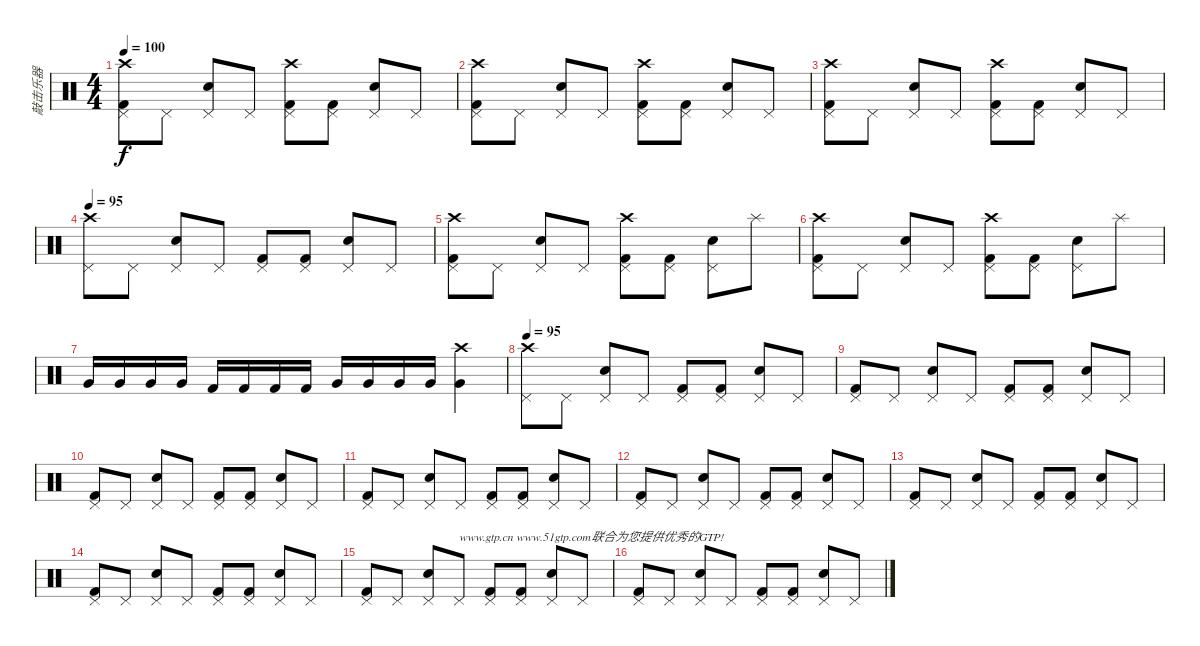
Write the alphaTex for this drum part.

\track ("敲击乐器" "敲击乐器") {instrument percussion}
\staff {score}
\articulation defaults
\ts (4 4)
\tempo 100
\clef neutral
\ks c
("Kick (hit) 2" "Pedal Hi-Hat (hit)" "Crash high (hit)").8{dy f} "Pedal Hi-Hat (hit)".8 ("Snare (hit) 2" "Pedal Hi-Hat (hit)").8 "Pedal Hi-Hat (hit)".8 ("Kick (hit) 2" "Pedal Hi-Hat (hit)" "Crash high (hit)").8 ("Kick (hit) 2" "Pedal Hi-Hat (hit)").8 ("Snare (hit) 2" "Pedal Hi-Hat (hit)").8 "Pedal Hi-Hat (hit)".8 |
("Kick (hit) 2" "Pedal Hi-Hat (hit)" "Crash high (hit)").8 "Pedal Hi-Hat (hit)".8 ("Snare (hit) 2" "Pedal Hi-Hat (hit)").8 "Pedal Hi-Hat (hit)".8 ("Kick (hit) 2" "Pedal Hi-Hat (hit)" "Crash high (hit)").8 ("Kick (hit) 2" "Pedal Hi-Hat (hit)").8 ("Snare (hit) 2" "Pedal Hi-Hat (hit)").8 "Pedal Hi-Hat (hit)".8 |
("Kick (hit) 2" "Pedal Hi-Hat (hit)" "Crash high (hit)").8 "Pedal Hi-Hat (hit)".8 ("Snare (hit) 2" "Pedal Hi-Hat (hit)").8 "Pedal Hi-Hat (hit)".8 ("Kick (hit) 2" "Pedal Hi-Hat (hit)" "Crash high (hit)").8 ("Kick (hit) 2" "Pedal Hi-Hat (hit)").8 ("Snare (hit) 2" "Pedal Hi-Hat (hit)").8 "Pedal Hi-Hat (hit)".8 |
\tempo 95
("Crash high (hit)" "Pedal Hi-Hat (hit)").8 "Pedal Hi-Hat (hit)".8 ("Snare (hit) 2" "Pedal Hi-Hat (hit)").8 "Pedal Hi-Hat (hit)".8 ("Kick (hit) 2" "Pedal Hi-Hat (hit)").8 ("Kick (hit) 2" "Pedal Hi-Hat (hit)").8 ("Snare (hit) 2" "Pedal Hi-Hat (hit)").8 "Pedal Hi-Hat (hit)".8 |
("Crash high (hit)" "Pedal Hi-Hat (hit)" "Kick (hit) 2").8 "Pedal Hi-Hat (hit)".8 ("Snare (hit) 2" "Pedal Hi-Hat (hit)").8 "Pedal Hi-Hat (hit)".8 ("Kick (hit) 2" "Pedal Hi-Hat (hit)" "Crash high (hit)").8 ("Kick (hit) 2" "Pedal Hi-Hat (hit)").8 ("Snare (hit) 2" "Pedal Hi-Hat (hit)").8 "Splash (hit)".8 |
("Kick (hit) 2" "Pedal Hi-Hat (hit)" "Crash high (hit)").8 "Pedal Hi-Hat (hit)".8 ("Snare (hit) 2" "Pedal Hi-Hat (hit)").8 "Pedal Hi-Hat (hit)".8 ("Kick (hit) 2" "Pedal Hi-Hat (hit)" "Crash high (hit)").8 ("Kick (hit) 2" "Pedal Hi-Hat (hit)").8 ("Snare (hit) 2" "Pedal Hi-Hat (hit)").8 "Splash (hit)".8 |
"Very Low Tom (hit)".16 "Very Low Tom (hit)".16 "Very Low Tom (hit)".16 "Very Low Tom (hit)".16 "Kick (hit) 2".16 "Kick (hit) 2".16 "Kick (hit) 2".16 "Kick (hit) 2".16 "Very Low Tom (hit)".16 "Very Low Tom (hit)".16 "Very Low Tom (hit)".16 "Very Low Tom (hit)".16 ("Crash high (hit)" "Very Low Tom (hit)").4 |
\tempo 95
("Crash high (hit)" "Pedal Hi-Hat (hit)").8 "Pedal Hi-Hat (hit)".8 ("Snare (hit) 2" "Pedal Hi-Hat (hit)").8 "Pedal Hi-Hat (hit)".8 ("Kick (hit) 2" "Pedal Hi-Hat (hit)").8 ("Kick (hit) 2" "Pedal Hi-Hat (hit)").8 ("Snare (hit) 2" "Pedal Hi-Hat (hit)").8 "Pedal Hi-Hat (hit)".8 |
("Kick (hit) 2" "Pedal Hi-Hat (hit)").8 "Pedal Hi-Hat (hit)".8 ("Snare (hit) 2" "Pedal Hi-Hat (hit)").8 "Pedal Hi-Hat (hit)".8 ("Kick (hit) 2" "Pedal Hi-Hat (hit)").8 ("Kick (hit) 2" "Pedal Hi-Hat (hit)").8 ("Snare (hit) 2" "Pedal Hi-Hat (hit)").8 "Pedal Hi-Hat (hit)".8 |
("Kick (hit) 2" "Pedal Hi-Hat (hit)").8 "Pedal Hi-Hat (hit)".8 ("Snare (hit) 2" "Pedal Hi-Hat (hit)").8 "Pedal Hi-Hat (hit)".8 ("Kick (hit) 2" "Pedal Hi-Hat (hit)").8 ("Kick (hit) 2" "Pedal Hi-Hat (hit)").8 ("Snare (hit) 2" "Pedal Hi-Hat (hit)").8 "Pedal Hi-Hat (hit)".8 |
("Kick (hit) 2" "Pedal Hi-Hat (hit)").8 "Pedal Hi-Hat (hit)".8 ("Snare (hit) 2" "Pedal Hi-Hat (hit)").8 "Pedal Hi-Hat (hit)".8 ("Kick (hit) 2" "Pedal Hi-Hat (hit)").8 ("Kick (hit) 2" "Pedal Hi-Hat (hit)").8 ("Snare (hit) 2" "Pedal Hi-Hat (hit)").8 "Pedal Hi-Hat (hit)".8 |
("Kick (hit) 2" "Pedal Hi-Hat (hit)").8 "Pedal Hi-Hat (hit)".8 ("Snare (hit) 2" "Pedal Hi-Hat (hit)").8 "Pedal Hi-Hat (hit)".8 ("Kick (hit) 2" "Pedal Hi-Hat (hit)").8 ("Kick (hit) 2" "Pedal Hi-Hat (hit)").8 ("Snare (hit) 2" "Pedal Hi-Hat (hit)").8 "Pedal Hi-Hat (hit)".8 |
("Kick (hit) 2" "Pedal Hi-Hat (hit)").8 "Pedal Hi-Hat (hit)".8 ("Snare (hit) 2" "Pedal Hi-Hat (hit)").8 "Pedal Hi-Hat (hit)".8 ("Kick (hit) 2" "Pedal Hi-Hat (hit)").8 ("Kick (hit) 2" "Pedal Hi-Hat (hit)").8 ("Snare (hit) 2" "Pedal Hi-Hat (hit)").8 "Pedal Hi-Hat (hit)".8 |
("Kick (hit) 2" "Pedal Hi-Hat (hit)").8 "Pedal Hi-Hat (hit)".8 ("Snare (hit) 2" "Pedal Hi-Hat (hit)").8 "Pedal Hi-Hat (hit)".8 ("Kick (hit) 2" "Pedal Hi-Hat (hit)").8 ("Kick (hit) 2" "Pedal Hi-Hat (hit)").8 ("Snare (hit) 2" "Pedal Hi-Hat (hit)").8 "Pedal Hi-Hat (hit)".8 |
("Kick (hit) 2" "Pedal Hi-Hat (hit)").8 "Pedal Hi-Hat (hit)".8 ("Snare (hit) 2" "Pedal Hi-Hat (hit)").8 "Pedal Hi-Hat (hit)".8{txt "www.gtp.cn www.51gtp.com联合为您提供优秀的GTP!"} ("Kick (hit) 2" "Pedal Hi-Hat (hit)").8 ("Kick (hit) 2" "Pedal Hi-Hat (hit)").8 ("Snare (hit) 2" "Pedal Hi-Hat (hit)").8 "Pedal Hi-Hat (hit)".8 |
("Kick (hit) 2" "Pedal Hi-Hat (hit)").8 "Pedal Hi-Hat (hit)".8 ("Snare (hit) 2" "Pedal Hi-Hat (hit)").8 "Pedal Hi-Hat (hit)".8 ("Kick (hit) 2" "Pedal Hi-Hat (hit)").8 ("Kick (hit) 2" "Pedal Hi-Hat (hit)").8 ("Snare (hit) 2" "Pedal Hi-Hat (hit)").8 "Pedal Hi-Hat (hit)".8
